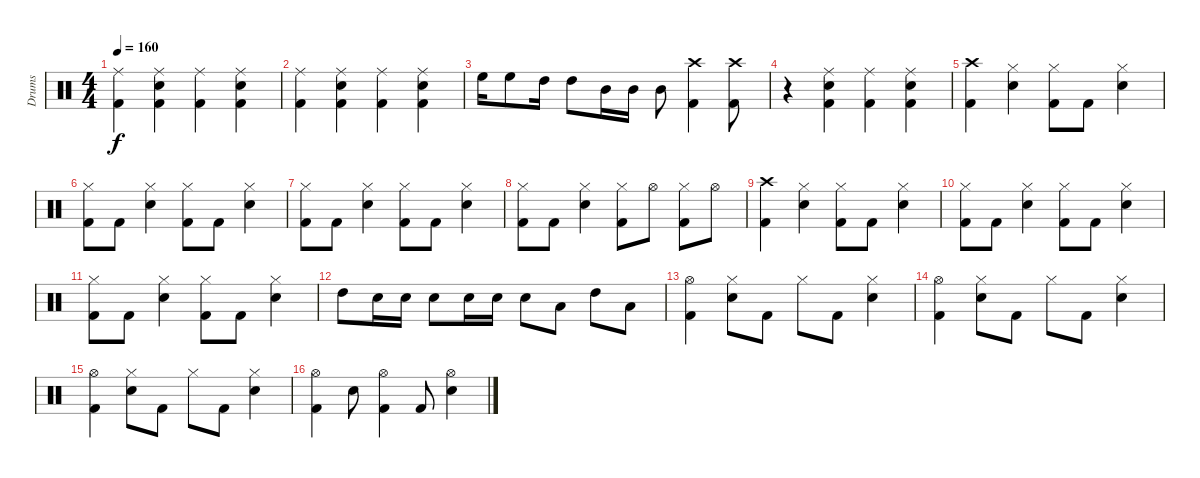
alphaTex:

\track ("Drums" "Drums") {instrument percussion}
\staff {score}
\articulation defaults
\ts (4 4)
\tempo 160
\clef neutral
\ks c
("Ride (middle)" "Kick (hit) 2").4{dy f} ("Ride (middle)" "Kick (hit) 2" "Snare (hit) 2").4 ("Ride (middle)" "Kick (hit) 2").4 ("Ride (middle)" "Kick (hit) 2" "Snare (hit) 2").4 |
("Ride (middle)" "Kick (hit) 2").4 ("Ride (middle)" "Kick (hit) 2" "Snare (hit) 2").4 ("Ride (middle)" "Kick (hit) 2").4 ("Ride (middle)" "Kick (hit) 2" "Snare (hit) 2").4 |
"High Floor Tom (hit)".16 "High Floor Tom (hit)".8 "High Tom (hit)".16 "High Tom (hit)".8 "Mid Tom (hit)".16 "Mid Tom (hit)".16 "Mid Tom (hit)".8 ("Crash high (hit)" "Kick (hit) 2").4 ("Crash high (hit)" "Kick (hit) 2").8 |
r.4 ("Ride (middle)" "Kick (hit) 2" "Snare (hit) 2").4 ("Ride (middle)" "Kick (hit) 2").4 ("Ride (middle)" "Kick (hit) 2" "Snare (hit) 2").4 |
("Crash high (hit)" "Kick (hit) 2").4 ("Hi-Hat (closed)" "Snare (hit) 2").4 ("Hi-Hat (closed)" "Kick (hit) 2").8 "Kick (hit) 2".8 ("Hi-Hat (closed)" "Snare (hit) 2").4 |
("Hi-Hat (closed)" "Kick (hit) 2").8 "Kick (hit) 2".8 ("Hi-Hat (closed)" "Snare (hit) 2").4 ("Hi-Hat (closed)" "Kick (hit) 2").8 "Kick (hit) 2".8 ("Hi-Hat (closed)" "Snare (hit) 2").4 |
("Hi-Hat (closed)" "Kick (hit) 2").8 "Kick (hit) 2".8 ("Hi-Hat (closed)" "Snare (hit) 2").4 ("Hi-Hat (closed)" "Kick (hit) 2").8 "Kick (hit) 2".8 ("Hi-Hat (closed)" "Snare (hit) 2").4 |
("Hi-Hat (closed)" "Kick (hit) 2").8 "Kick (hit) 2".8 ("Hi-Hat (closed)" "Snare (hit) 2").4 ("Hi-Hat (closed)" "Kick (hit) 2").8 "Hi-Hat (open)".8 ("Hi-Hat (closed)" "Kick (hit) 2").8 "Hi-Hat (open)".8 |
("Crash high (hit)" "Kick (hit) 2").4 ("Hi-Hat (closed)" "Snare (hit) 2").4 ("Hi-Hat (closed)" "Kick (hit) 2").8 "Kick (hit) 2".8 ("Hi-Hat (closed)" "Snare (hit) 2").4 |
("Hi-Hat (closed)" "Kick (hit) 2").8 "Kick (hit) 2".8 ("Hi-Hat (closed)" "Snare (hit) 2").4 ("Hi-Hat (closed)" "Kick (hit) 2").8 "Kick (hit) 2".8 ("Hi-Hat (closed)" "Snare (hit) 2").4 |
("Hi-Hat (closed)" "Kick (hit) 2").8 "Kick (hit) 2".8 ("Hi-Hat (closed)" "Snare (hit) 2").4 ("Hi-Hat (closed)" "Kick (hit) 2").8 "Kick (hit) 2".8 ("Hi-Hat (closed)" "Snare (hit) 2").4 |
"High Tom (hit)".8 "Snare (hit) 2".16 "Snare (hit) 2".16 "Snare (hit) 2".8 "Snare (hit) 2".16 "Snare (hit) 2".16 "Snare (hit) 2".8 "Low Tom (hit)".8 "High Tom (hit)".8 "Low Tom (hit)".8 |
("Hi-Hat (open)" "Kick (hit) 2").4 ("Hi-Hat (closed)" "Snare (hit) 2").8 "Kick (hit) 2".8 "Hi-Hat (closed)".8 "Kick (hit) 2".8 ("Hi-Hat (closed)" "Snare (hit) 2").4 |
("Hi-Hat (open)" "Kick (hit) 2").4 ("Hi-Hat (closed)" "Snare (hit) 2").8 "Kick (hit) 2".8 "Hi-Hat (closed)".8 "Kick (hit) 2".8 ("Hi-Hat (closed)" "Snare (hit) 2").4 |
("Hi-Hat (open)" "Kick (hit) 2").4 ("Hi-Hat (closed)" "Snare (hit) 2").8 "Kick (hit) 2".8 "Hi-Hat (closed)".8 "Kick (hit) 2".8 ("Hi-Hat (closed)" "Snare (hit) 2").4 |
("Hi-Hat (open)" "Kick (hit) 2").4 "Snare (hit) 2".8 ("Hi-Hat (open)" "Kick (hit) 2").4 "Kick (hit) 2".8 ("Hi-Hat (open)" "Snare (hit) 2").4
